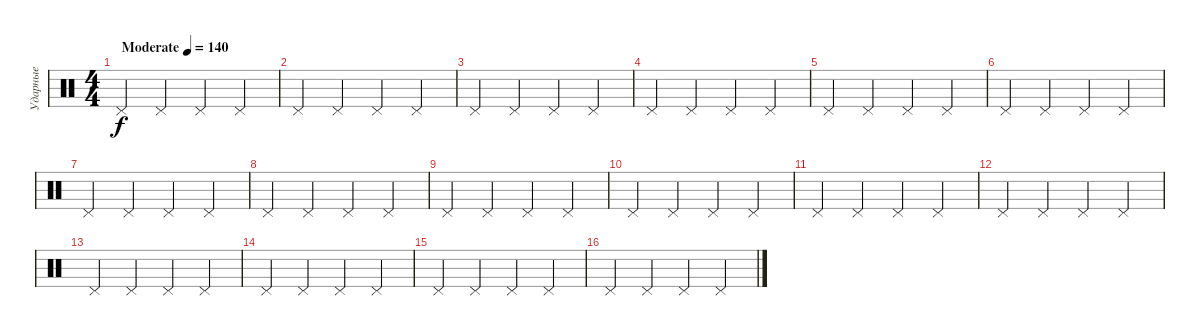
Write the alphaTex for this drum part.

\track ("Ударные" "Ударные") {instrument percussion}
\staff {score}
\articulation defaults
\ts (4 4)
\tempo (140 "Moderate")
\clef neutral
\ks c "Pedal Hi-Hat (hit)".4{dy f} "Pedal Hi-Hat (hit)".4 "Pedal Hi-Hat (hit)".4 "Pedal Hi-Hat (hit)".4
|
"Pedal Hi-Hat (hit)".4 "Pedal Hi-Hat (hit)".4 "Pedal Hi-Hat (hit)".4 "Pedal Hi-Hat (hit)".4 |
"Pedal Hi-Hat (hit)".4 "Pedal Hi-Hat (hit)".4 "Pedal Hi-Hat (hit)".4 "Pedal Hi-Hat (hit)".4 |
"Pedal Hi-Hat (hit)".4 "Pedal Hi-Hat (hit)".4 "Pedal Hi-Hat (hit)".4 "Pedal Hi-Hat (hit)".4 |
"Pedal Hi-Hat (hit)".4 "Pedal Hi-Hat (hit)".4 "Pedal Hi-Hat (hit)".4 "Pedal Hi-Hat (hit)".4 |
"Pedal Hi-Hat (hit)".4 "Pedal Hi-Hat (hit)".4 "Pedal Hi-Hat (hit)".4 "Pedal Hi-Hat (hit)".4 |
"Pedal Hi-Hat (hit)".4 "Pedal Hi-Hat (hit)".4 "Pedal Hi-Hat (hit)".4 "Pedal Hi-Hat (hit)".4 |
"Pedal Hi-Hat (hit)".4 "Pedal Hi-Hat (hit)".4 "Pedal Hi-Hat (hit)".4 "Pedal Hi-Hat (hit)".4 |
"Pedal Hi-Hat (hit)".4 "Pedal Hi-Hat (hit)".4 "Pedal Hi-Hat (hit)".4 "Pedal Hi-Hat (hit)".4 |
"Pedal Hi-Hat (hit)".4 "Pedal Hi-Hat (hit)".4 "Pedal Hi-Hat (hit)".4 "Pedal Hi-Hat (hit)".4 |
"Pedal Hi-Hat (hit)".4 "Pedal Hi-Hat (hit)".4 "Pedal Hi-Hat (hit)".4 "Pedal Hi-Hat (hit)".4 |
"Pedal Hi-Hat (hit)".4 "Pedal Hi-Hat (hit)".4 "Pedal Hi-Hat (hit)".4 "Pedal Hi-Hat (hit)".4 |
"Pedal Hi-Hat (hit)".4 "Pedal Hi-Hat (hit)".4 "Pedal Hi-Hat (hit)".4 "Pedal Hi-Hat (hit)".4 |
"Pedal Hi-Hat (hit)".4 "Pedal Hi-Hat (hit)".4 "Pedal Hi-Hat (hit)".4 "Pedal Hi-Hat (hit)".4 |
"Pedal Hi-Hat (hit)".4 "Pedal Hi-Hat (hit)".4 "Pedal Hi-Hat (hit)".4 "Pedal Hi-Hat (hit)".4 |
"Pedal Hi-Hat (hit)".4 "Pedal Hi-Hat (hit)".4 "Pedal Hi-Hat (hit)".4 "Pedal Hi-Hat (hit)".4
